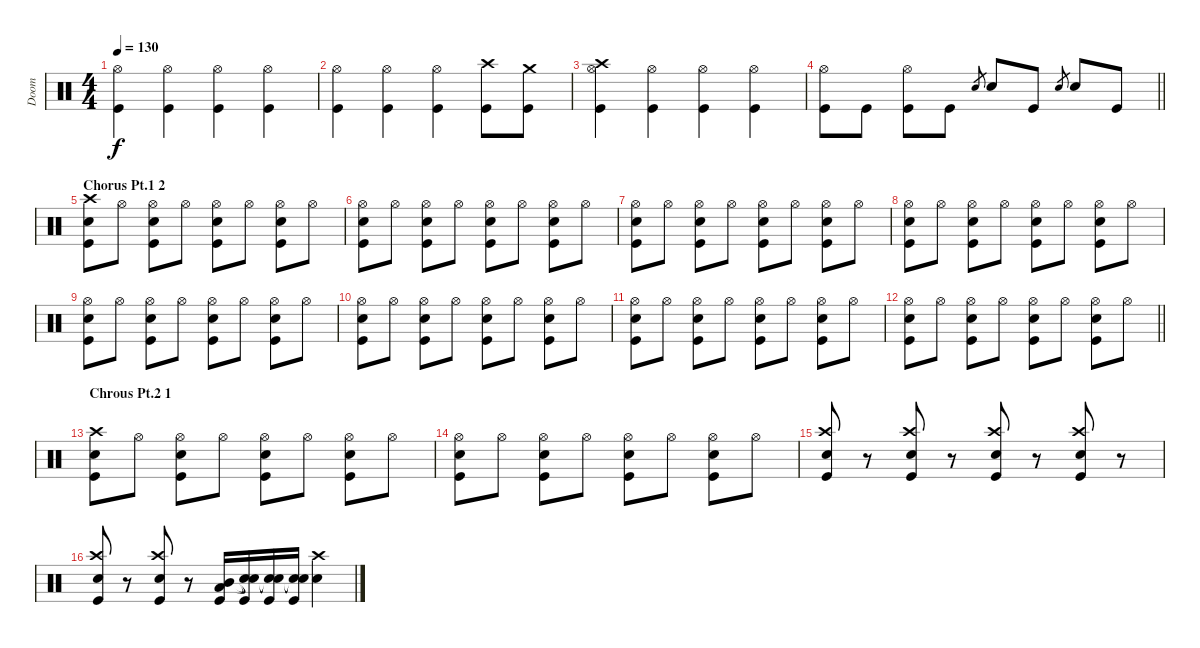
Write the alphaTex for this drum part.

\track ("Doom" "Doom") {instrument percussion}
\staff {score}
\articulation defaults
\ts (4 4)
\tempo 130
\clef neutral
\ks c
("Hi-Hat (open)" "Kick (hit)").4{dy f} ("Hi-Hat (open)" "Kick (hit)").4 ("Hi-Hat (open)" "Kick (hit)").4 ("Hi-Hat (open)" "Kick (hit)").4 |
("Hi-Hat (open)" "Kick (hit)").4 ("Hi-Hat (open)" "Kick (hit)").4 ("Hi-Hat (open)" "Kick (hit)").4 ("Crash high (hit)" "Kick (hit)").8 ("Crash medium (hit)" "Kick (hit)").8 |
("Crash high (hit)" "Hi-Hat (open)" "Kick (hit)").4 ("Hi-Hat (open)" "Kick (hit)").4 ("Hi-Hat (open)" "Kick (hit)").4 ("Hi-Hat (open)" "Kick (hit)").4 |
\barLineRight lightlight
("Hi-Hat (open)" "Kick (hit)").8 "Kick (hit)".8 ("Hi-Hat (open)" "Kick (hit)").8 "Kick (hit)".8 "Electric Snare (hit)".8{gr} "Electric Snare (hit)".8 "Kick (hit)".8 "Electric Snare (hit)".8{gr} "Electric Snare (hit)".8 "Kick (hit)".8 |
\section ("" "Chorus Pt.1 2")
("Crash high (hit)" "Electric Snare (hit)" "Kick (hit)").8 "Hi-Hat (open)".8 ("Hi-Hat (open)" "Electric Snare (hit)" "Kick (hit)").8 "Hi-Hat (open)".8 ("Hi-Hat (open)" "Electric Snare (hit)" "Kick (hit)").8 "Hi-Hat (open)".8 ("Hi-Hat (open)" "Electric Snare (hit)" "Kick (hit)").8 "Hi-Hat (open)".8 |
("Hi-Hat (open)" "Electric Snare (hit)" "Kick (hit)").8 "Hi-Hat (open)".8 ("Hi-Hat (open)" "Electric Snare (hit)" "Kick (hit)").8 "Hi-Hat (open)".8 ("Hi-Hat (open)" "Electric Snare (hit)" "Kick (hit)").8 "Hi-Hat (open)".8 ("Hi-Hat (open)" "Electric Snare (hit)" "Kick (hit)").8 "Hi-Hat (open)".8 |
("Hi-Hat (open)" "Electric Snare (hit)" "Kick (hit)").8 "Hi-Hat (open)".8 ("Hi-Hat (open)" "Electric Snare (hit)" "Kick (hit)").8 "Hi-Hat (open)".8 ("Hi-Hat (open)" "Electric Snare (hit)" "Kick (hit)").8 "Hi-Hat (open)".8 ("Hi-Hat (open)" "Electric Snare (hit)" "Kick (hit)").8 "Hi-Hat (open)".8 |
("Hi-Hat (open)" "Electric Snare (hit)" "Kick (hit)").8 "Hi-Hat (open)".8 ("Hi-Hat (open)" "Electric Snare (hit)" "Kick (hit)").8 "Hi-Hat (open)".8 ("Hi-Hat (open)" "Electric Snare (hit)" "Kick (hit)").8 "Hi-Hat (open)".8 ("Hi-Hat (open)" "Electric Snare (hit)" "Kick (hit)").8 "Hi-Hat (open)".8 |
("Hi-Hat (open)" "Electric Snare (hit)" "Kick (hit)").8 "Hi-Hat (open)".8 ("Hi-Hat (open)" "Electric Snare (hit)" "Kick (hit)").8 "Hi-Hat (open)".8 ("Hi-Hat (open)" "Electric Snare (hit)" "Kick (hit)").8 "Hi-Hat (open)".8 ("Hi-Hat (open)" "Electric Snare (hit)" "Kick (hit)").8 "Hi-Hat (open)".8 |
("Hi-Hat (open)" "Electric Snare (hit)" "Kick (hit)").8 "Hi-Hat (open)".8 ("Hi-Hat (open)" "Electric Snare (hit)" "Kick (hit)").8 "Hi-Hat (open)".8 ("Hi-Hat (open)" "Electric Snare (hit)" "Kick (hit)").8 "Hi-Hat (open)".8 ("Hi-Hat (open)" "Electric Snare (hit)" "Kick (hit)").8 "Hi-Hat (open)".8 |
("Hi-Hat (open)" "Electric Snare (hit)" "Kick (hit)").8 "Hi-Hat (open)".8 ("Hi-Hat (open)" "Electric Snare (hit)" "Kick (hit)").8 "Hi-Hat (open)".8 ("Hi-Hat (open)" "Electric Snare (hit)" "Kick (hit)").8 "Hi-Hat (open)".8 ("Hi-Hat (open)" "Electric Snare (hit)" "Kick (hit)").8 "Hi-Hat (open)".8 |
\barLineRight lightlight
("Hi-Hat (open)" "Electric Snare (hit)" "Kick (hit)").8 "Hi-Hat (open)".8 ("Hi-Hat (open)" "Electric Snare (hit)" "Kick (hit)").8 "Hi-Hat (open)".8 ("Hi-Hat (open)" "Electric Snare (hit)" "Kick (hit)").8 "Hi-Hat (open)".8 ("Hi-Hat (open)" "Electric Snare (hit)" "Kick (hit)").8 "Hi-Hat (open)".8 |
\section ("" "Chrous Pt.2 1")
("Crash high (hit)" "Electric Snare (hit)" "Kick (hit)").8 "Hi-Hat (open)".8 ("Hi-Hat (open)" "Electric Snare (hit)" "Kick (hit)").8 "Hi-Hat (open)".8 ("Hi-Hat (open)" "Electric Snare (hit)" "Kick (hit)").8 "Hi-Hat (open)".8 ("Hi-Hat (open)" "Electric Snare (hit)" "Kick (hit)").8 "Hi-Hat (open)".8 |
("Hi-Hat (open)" "Electric Snare (hit)" "Kick (hit)").8 "Hi-Hat (open)".8 ("Hi-Hat (open)" "Electric Snare (hit)" "Kick (hit)").8 "Hi-Hat (open)".8 ("Hi-Hat (open)" "Electric Snare (hit)" "Kick (hit)").8 "Hi-Hat (open)".8 ("Hi-Hat (open)" "Electric Snare (hit)" "Kick (hit)").8 "Hi-Hat (open)".8 |
("Crash high (hit)" "Electric Snare (hit)" "Kick (hit)").8 r.8 ("Crash high (hit)" "Electric Snare (hit)" "Kick (hit)").8 r.8 ("Crash high (hit)" "Electric Snare (hit)" "Kick (hit)").8 r.8 ("Crash high (hit)" "Electric Snare (hit)" "Kick (hit)").8 r.8 |
("Crash high (hit)" "Electric Snare (hit)" "Kick (hit)").8 r.8 ("Crash high (hit)" "Electric Snare (hit)" "Kick (hit)").8 r.8 ("Low Tom (hit)" "Mid Tom (hit)" "Kick (hit)").16 ("Snare (hit)"{t} "Snare (hit)"{t} "Kick (hit)").16 ("Snare (hit)"{t} "Snare (hit)"{t} "Kick (hit)").16 ("Snare (hit)"{t} "Snare (hit)"{t} "Kick (hit)").16 ("Crash high (hit)" "Electric Snare (hit)").4
